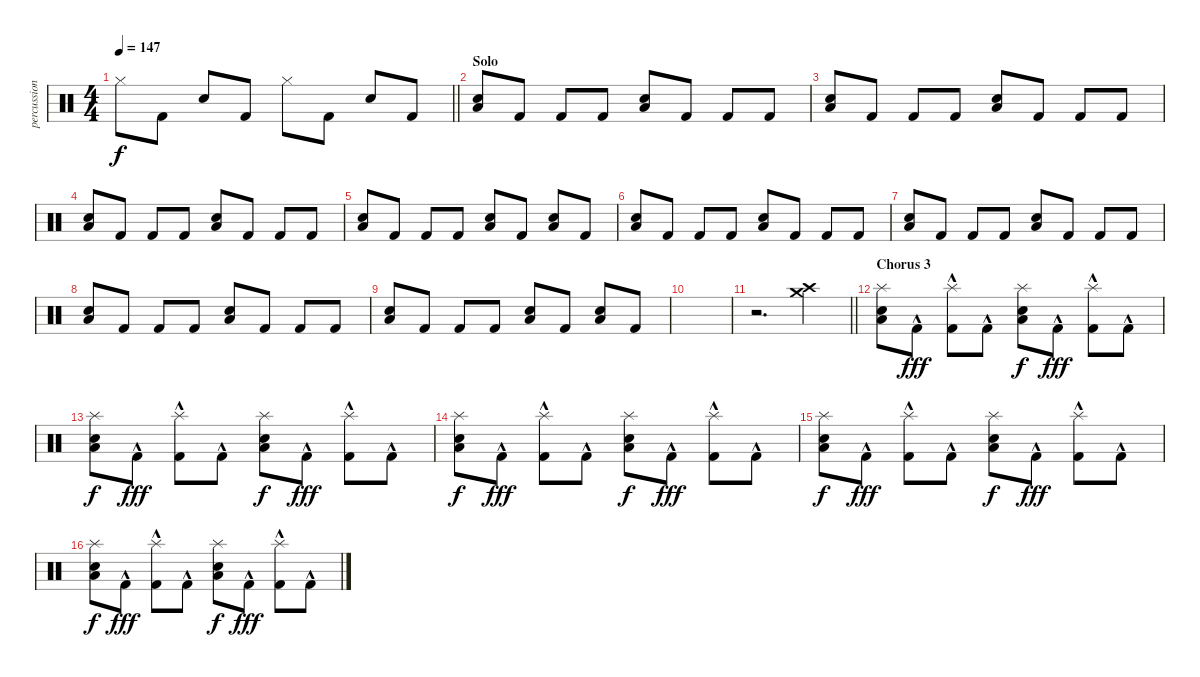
\track ("percussion" "percussion") {instrument percussion}
\staff {score}
\articulation defaults
\ts (4 4)
\tempo 147
\clef neutral
\barLineRight lightlight
\ks c "Hi-Hat (closed)".8{dy f} "Kick (hit) 2".8 "Electric Snare (hit)".8 "Kick (hit) 2".8 "Hi-Hat (closed)".8 "Kick (hit) 2".8 "Electric Snare (hit)".8 "Kick (hit) 2".8
|
\section ("" "Solo")
("Electric Snare (hit)" "Low Floor Tom (hit)").8 "Kick (hit) 2".8 "Kick (hit) 2".8 "Kick (hit) 2".8 ("Electric Snare (hit)" "Low Floor Tom (hit)").8 "Kick (hit) 2".8 "Kick (hit) 2".8 "Kick (hit) 2".8 |
("Electric Snare (hit)" "Low Floor Tom (hit)").8 "Kick (hit) 2".8 "Kick (hit) 2".8 "Kick (hit) 2".8 ("Electric Snare (hit)" "Low Floor Tom (hit)").8 "Kick (hit) 2".8 "Kick (hit) 2".8 "Kick (hit) 2".8 |
("Electric Snare (hit)" "Low Floor Tom (hit)").8 "Kick (hit) 2".8 "Kick (hit) 2".8 "Kick (hit) 2".8 ("Electric Snare (hit)" "Low Floor Tom (hit)").8 "Kick (hit) 2".8 "Kick (hit) 2".8 "Kick (hit) 2".8 |
("Electric Snare (hit)" "Low Floor Tom (hit)").8 "Kick (hit) 2".8 "Kick (hit) 2".8 "Kick (hit) 2".8 ("Electric Snare (hit)" "Low Floor Tom (hit)").8 "Kick (hit) 2".8 ("Electric Snare (hit)" "Low Floor Tom (hit)").8 "Kick (hit) 2".8 |
("Electric Snare (hit)" "Low Floor Tom (hit)").8 "Kick (hit) 2".8 "Kick (hit) 2".8 "Kick (hit) 2".8 ("Electric Snare (hit)" "Low Floor Tom (hit)").8 "Kick (hit) 2".8 "Kick (hit) 2".8 "Kick (hit) 2".8 |
("Electric Snare (hit)" "Low Floor Tom (hit)").8 "Kick (hit) 2".8 "Kick (hit) 2".8 "Kick (hit) 2".8 ("Electric Snare (hit)" "Low Floor Tom (hit)").8 "Kick (hit) 2".8 "Kick (hit) 2".8 "Kick (hit) 2".8 |
("Electric Snare (hit)" "Low Floor Tom (hit)").8 "Kick (hit) 2".8 "Kick (hit) 2".8 "Kick (hit) 2".8 ("Electric Snare (hit)" "Low Floor Tom (hit)").8 "Kick (hit) 2".8 "Kick (hit) 2".8 "Kick (hit) 2".8 |
("Electric Snare (hit)" "Low Floor Tom (hit)").8 "Kick (hit) 2".8 "Kick (hit) 2".8 "Kick (hit) 2".8 ("Electric Snare (hit)" "Low Floor Tom (hit)").8 "Kick (hit) 2".8 ("Electric Snare (hit)" "Low Floor Tom (hit)").8 "Kick (hit) 2".8 |
|
\barLineRight lightlight
r.2{d} ("Crash medium (hit)" "Crash high (hit)").4 |
\section ("" "Chorus 3")
("Electric Snare (hit)" "Low Floor Tom (hit)" "Splash (hit)").8 "Kick (hit) 2"{hac}.8{dy fff} ("Kick (hit) 2"{hac} "Splash (hit)").8 "Kick (hit) 2"{hac}.8 ("Electric Snare (hit)" "Low Floor Tom (hit)" "Splash (hit)").8{dy f} "Kick (hit) 2"{hac}.8{dy fff} ("Kick (hit) 2"{hac} "Splash (hit)").8 "Kick (hit) 2"{hac}.8 |
("Electric Snare (hit)" "Low Floor Tom (hit)" "Splash (hit)").8{dy f} "Kick (hit) 2"{hac}.8{dy fff} ("Kick (hit) 2"{hac} "Splash (hit)").8 "Kick (hit) 2"{hac}.8 ("Electric Snare (hit)" "Low Floor Tom (hit)" "Splash (hit)").8{dy f} "Kick (hit) 2"{hac}.8{dy fff} ("Kick (hit) 2"{hac} "Splash (hit)").8 "Kick (hit) 2"{hac}.8 |
("Electric Snare (hit)" "Low Floor Tom (hit)" "Splash (hit)").8{dy f} "Kick (hit) 2"{hac}.8{dy fff} ("Kick (hit) 2"{hac} "Splash (hit)").8 "Kick (hit) 2"{hac}.8 ("Electric Snare (hit)" "Low Floor Tom (hit)" "Splash (hit)").8{dy f} "Kick (hit) 2"{hac}.8{dy fff} ("Kick (hit) 2"{hac} "Splash (hit)").8 "Kick (hit) 2"{hac}.8 |
("Electric Snare (hit)" "Low Floor Tom (hit)" "Splash (hit)").8{dy f} "Kick (hit) 2"{hac}.8{dy fff} ("Kick (hit) 2"{hac} "Splash (hit)").8 "Kick (hit) 2"{hac}.8 ("Electric Snare (hit)" "Low Floor Tom (hit)" "Splash (hit)").8{dy f} "Kick (hit) 2"{hac}.8{dy fff} ("Kick (hit) 2"{hac} "Splash (hit)").8 "Kick (hit) 2"{hac}.8 |
("Electric Snare (hit)" "Low Floor Tom (hit)" "Splash (hit)").8{dy f} "Kick (hit) 2"{hac}.8{dy fff} ("Kick (hit) 2"{hac} "Splash (hit)").8 "Kick (hit) 2"{hac}.8 ("Electric Snare (hit)" "Low Floor Tom (hit)" "Splash (hit)").8{dy f} "Kick (hit) 2"{hac}.8{dy fff} ("Kick (hit) 2"{hac} "Splash (hit)").8 "Kick (hit) 2"{hac}.8
